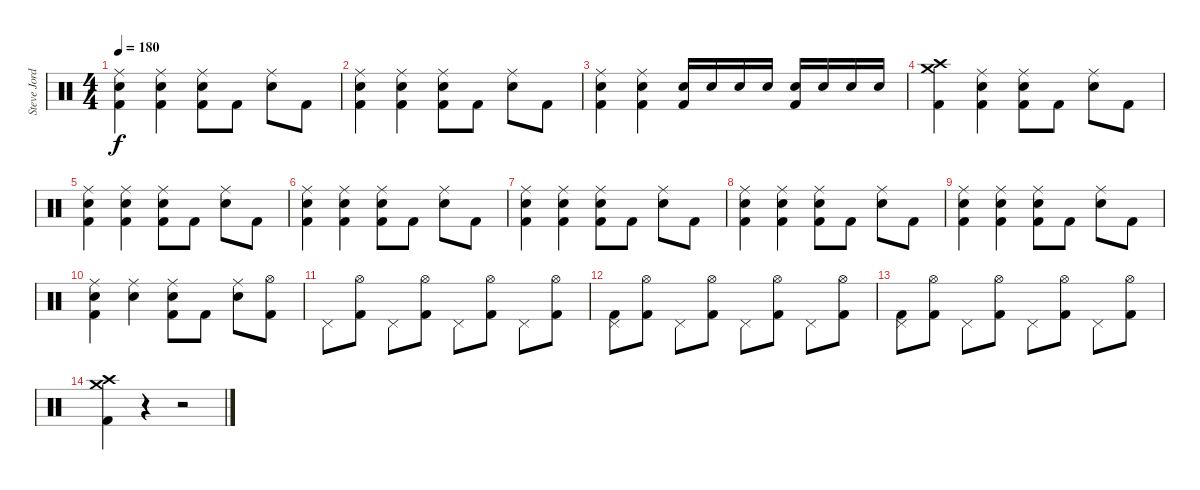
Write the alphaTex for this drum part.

\track ("Steve Jordan - Drums" "Steve Jord") {instrument percussion}
\staff {score}
\articulation defaults
\ts (4 4)
\tempo 180
\clef neutral
\ks c
("Ride (middle)" "Snare (hit) 2" "Kick (hit) 2").4{dy f} ("Ride (middle)" "Snare (hit) 2" "Kick (hit) 2").4 ("Ride (middle)" "Snare (hit) 2" "Kick (hit) 2").8 "Kick (hit) 2".8 ("Ride (middle)" "Snare (hit) 2").8 "Kick (hit) 2".8 |
("Ride (middle)" "Snare (hit) 2" "Kick (hit) 2").4 ("Ride (middle)" "Snare (hit) 2" "Kick (hit) 2").4 ("Ride (middle)" "Snare (hit) 2" "Kick (hit) 2").8 "Kick (hit) 2".8 ("Ride (middle)" "Snare (hit) 2").8 "Kick (hit) 2".8 |
("Ride (middle)" "Snare (hit) 2" "Kick (hit) 2").4 ("Ride (middle)" "Snare (hit) 2" "Kick (hit) 2").4 ("Snare (hit) 2" "Kick (hit) 2").16 "Snare (hit) 2".16 "Snare (hit) 2".16 "Snare (hit) 2".16 ("Snare (hit) 2" "Kick (hit) 2").16 "Snare (hit) 2".16 "Snare (hit) 2".16 "Snare (hit) 2".16 |
("Crash medium (hit)" "Crash high (hit)" "Kick (hit) 2").4 ("Ride (middle)" "Snare (hit) 2" "Kick (hit) 2").4 ("Ride (middle)" "Snare (hit) 2" "Kick (hit) 2").8 "Kick (hit) 2".8 ("Ride (middle)" "Snare (hit) 2").8 "Kick (hit) 2".8 |
("Ride (middle)" "Snare (hit) 2" "Kick (hit) 2").4 ("Ride (middle)" "Snare (hit) 2" "Kick (hit) 2").4 ("Ride (middle)" "Snare (hit) 2" "Kick (hit) 2").8 "Kick (hit) 2".8 ("Ride (middle)" "Snare (hit) 2").8 "Kick (hit) 2".8 |
("Ride (middle)" "Snare (hit) 2" "Kick (hit) 2").4 ("Ride (middle)" "Snare (hit) 2" "Kick (hit) 2").4 ("Ride (middle)" "Snare (hit) 2" "Kick (hit) 2").8 "Kick (hit) 2".8 ("Ride (middle)" "Snare (hit) 2").8 "Kick (hit) 2".8 |
("Ride (middle)" "Snare (hit) 2" "Kick (hit) 2").4 ("Ride (middle)" "Snare (hit) 2" "Kick (hit) 2").4 ("Ride (middle)" "Snare (hit) 2" "Kick (hit) 2").8 "Kick (hit) 2".8 ("Ride (middle)" "Snare (hit) 2").8 "Kick (hit) 2".8 |
("Ride (middle)" "Snare (hit) 2" "Kick (hit) 2").4 ("Ride (middle)" "Snare (hit) 2" "Kick (hit) 2").4 ("Ride (middle)" "Snare (hit) 2" "Kick (hit) 2").8 "Kick (hit) 2".8 ("Ride (middle)" "Snare (hit) 2").8 "Kick (hit) 2".8 |
("Ride (middle)" "Snare (hit) 2" "Kick (hit) 2").4 ("Ride (middle)" "Snare (hit) 2" "Kick (hit) 2").4 ("Ride (middle)" "Snare (hit) 2" "Kick (hit) 2").8 "Kick (hit) 2".8 ("Ride (middle)" "Snare (hit) 2").8 "Kick (hit) 2".8 |
("Ride (middle)" "Snare (hit) 2" "Kick (hit) 2").4 ("Ride (middle)" "Snare (hit) 2").4 ("Ride (middle)" "Snare (hit) 2" "Kick (hit) 2").8 "Kick (hit) 2".8 ("Ride (middle)" "Snare (hit) 2").8 ("Hi-Hat (open)" "Kick (hit) 2").8 |
"Pedal Hi-Hat (hit)".8 ("Hi-Hat (open)" "Kick (hit) 2").8 "Pedal Hi-Hat (hit)".8 ("Hi-Hat (open)" "Kick (hit) 2").8 "Pedal Hi-Hat (hit)".8 ("Hi-Hat (open)" "Kick (hit) 2").8 "Pedal Hi-Hat (hit)".8 ("Hi-Hat (open)" "Kick (hit) 2").8 |
("Pedal Hi-Hat (hit)" "Kick (hit) 2").8 ("Hi-Hat (open)" "Kick (hit) 2").8 "Pedal Hi-Hat (hit)".8 ("Hi-Hat (open)" "Kick (hit) 2").8 "Pedal Hi-Hat (hit)".8 ("Hi-Hat (open)" "Kick (hit) 2").8 "Pedal Hi-Hat (hit)".8 ("Hi-Hat (open)" "Kick (hit) 2").8 |
("Pedal Hi-Hat (hit)" "Kick (hit) 2").8 ("Hi-Hat (open)" "Kick (hit) 2").8 "Pedal Hi-Hat (hit)".8 ("Hi-Hat (open)" "Kick (hit) 2").8 "Pedal Hi-Hat (hit)".8 ("Hi-Hat (open)" "Kick (hit) 2").8 "Pedal Hi-Hat (hit)".8 ("Hi-Hat (open)" "Kick (hit) 2").8 |
("Crash medium (hit)" "Crash high (hit)" "Kick (hit) 2").4 r.4 r.2
